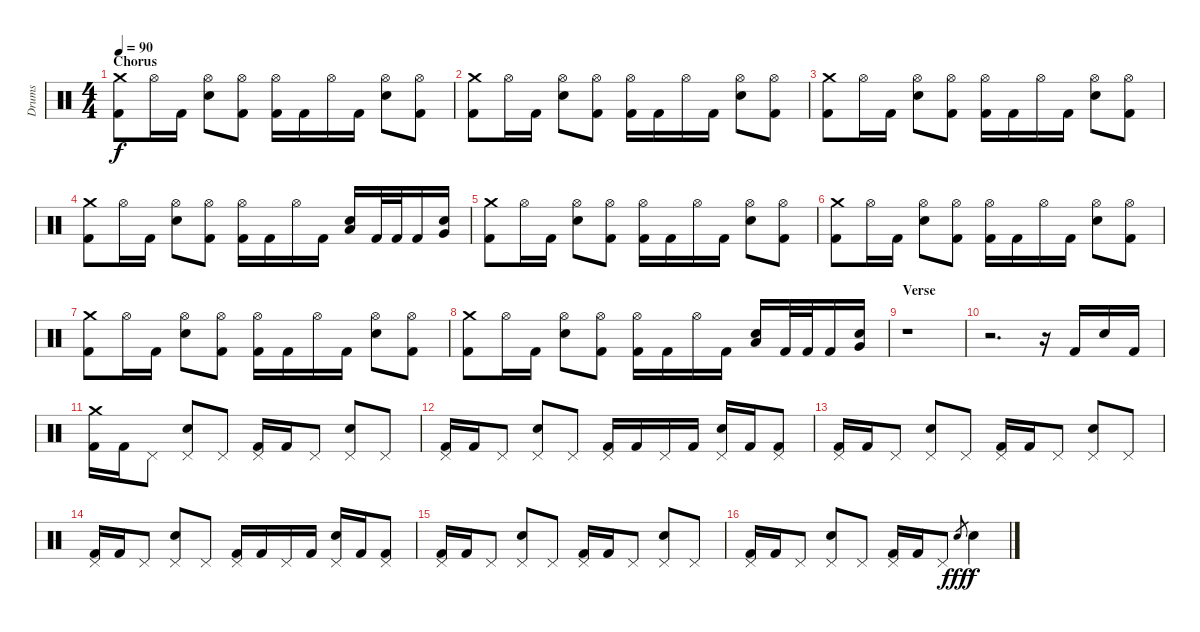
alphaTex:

\track ("Drums" "Drums") {instrument percussion}
\staff {score}
\articulation defaults
\ts (4 4)
\section ("" "Chorus")
\tempo 90
\clef neutral
\ks c
("Crash medium (hit)" "Kick (hit) 2").8{dy f} "Hi-Hat (open)".16 "Kick (hit) 2".16 ("Hi-Hat (open)" "Electric Snare (hit)").8 ("Hi-Hat (open)" "Kick (hit) 2").8 ("Hi-Hat (open)" "Kick (hit) 2").16 "Kick (hit) 2".16 "Hi-Hat (open)".16 "Kick (hit) 2".16 ("Hi-Hat (open)" "Electric Snare (hit)").8 ("Hi-Hat (open)" "Kick (hit) 2").8 |
("Crash medium (hit)" "Kick (hit) 2").8 "Hi-Hat (open)".16 "Kick (hit) 2".16 ("Hi-Hat (open)" "Electric Snare (hit)").8 ("Hi-Hat (open)" "Kick (hit) 2").8 ("Hi-Hat (open)" "Kick (hit) 2").16 "Kick (hit) 2".16 "Hi-Hat (open)".16 "Kick (hit) 2".16 ("Hi-Hat (open)" "Electric Snare (hit)").8 ("Hi-Hat (open)" "Kick (hit) 2").8 |
("Crash medium (hit)" "Kick (hit) 2").8 "Hi-Hat (open)".16 "Kick (hit) 2".16 ("Hi-Hat (open)" "Electric Snare (hit)").8 ("Hi-Hat (open)" "Kick (hit) 2").8 ("Hi-Hat (open)" "Kick (hit) 2").16 "Kick (hit) 2".16 "Hi-Hat (open)".16 "Kick (hit) 2".16 ("Hi-Hat (open)" "Electric Snare (hit)").8 ("Hi-Hat (open)" "Kick (hit) 2").8 |
("Crash medium (hit)" "Kick (hit) 2").8 "Hi-Hat (open)".16 "Kick (hit) 2".16 ("Hi-Hat (open)" "Electric Snare (hit)").8 ("Hi-Hat (open)" "Kick (hit) 2").8 ("Hi-Hat (open)" "Kick (hit) 2").16 "Kick (hit) 2".16 "Hi-Hat (open)".16 "Kick (hit) 2".16 ("Electric Snare (hit)" "Low Tom (hit)").16 "Kick (hit) 2".32 "Kick (hit) 2".32 "Kick (hit) 2".16 ("Electric Snare (hit)" "Very Low Tom (hit)").16 |
("Crash medium (hit)" "Kick (hit) 2").8 "Hi-Hat (open)".16 "Kick (hit) 2".16 ("Hi-Hat (open)" "Electric Snare (hit)").8 ("Hi-Hat (open)" "Kick (hit) 2").8 ("Hi-Hat (open)" "Kick (hit) 2").16 "Kick (hit) 2".16 "Hi-Hat (open)".16 "Kick (hit) 2".16 ("Hi-Hat (open)" "Electric Snare (hit)").8 ("Hi-Hat (open)" "Kick (hit) 2").8 |
("Crash medium (hit)" "Kick (hit) 2").8 "Hi-Hat (open)".16 "Kick (hit) 2".16 ("Hi-Hat (open)" "Electric Snare (hit)").8 ("Hi-Hat (open)" "Kick (hit) 2").8 ("Hi-Hat (open)" "Kick (hit) 2").16 "Kick (hit) 2".16 "Hi-Hat (open)".16 "Kick (hit) 2".16 ("Hi-Hat (open)" "Electric Snare (hit)").8 ("Hi-Hat (open)" "Kick (hit) 2").8 |
("Crash medium (hit)" "Kick (hit) 2").8 "Hi-Hat (open)".16 "Kick (hit) 2".16 ("Hi-Hat (open)" "Electric Snare (hit)").8 ("Hi-Hat (open)" "Kick (hit) 2").8 ("Hi-Hat (open)" "Kick (hit) 2").16 "Kick (hit) 2".16 "Hi-Hat (open)".16 "Kick (hit) 2".16 ("Hi-Hat (open)" "Electric Snare (hit)").8 ("Hi-Hat (open)" "Kick (hit) 2").8 |
("Crash medium (hit)" "Kick (hit) 2").8 "Hi-Hat (open)".16 "Kick (hit) 2".16 ("Hi-Hat (open)" "Electric Snare (hit)").8 ("Hi-Hat (open)" "Kick (hit) 2").8 ("Hi-Hat (open)" "Kick (hit) 2").16 "Kick (hit) 2".16 "Hi-Hat (open)".16 "Kick (hit) 2".16 ("Electric Snare (hit)" "Low Tom (hit)").16 "Kick (hit) 2".32 "Kick (hit) 2".32 "Kick (hit) 2".16 ("Electric Snare (hit)" "Very Low Tom (hit)").16 |
\section ("" "Verse")
r.1 |
r.2{d} r.16 "Kick (hit) 2".16 "Electric Snare (hit)".16 "Kick (hit) 2".16 |
("Crash medium (hit)" "Kick (hit) 2").16 "Kick (hit) 2".16 "Pedal Hi-Hat (hit)".8 ("Pedal Hi-Hat (hit)" "Electric Snare (hit)").8 "Pedal Hi-Hat (hit)".8 ("Pedal Hi-Hat (hit)" "Kick (hit) 2").16 "Kick (hit) 2".16 "Pedal Hi-Hat (hit)".8 ("Pedal Hi-Hat (hit)" "Electric Snare (hit)").8 "Pedal Hi-Hat (hit)".8 |
("Pedal Hi-Hat (hit)" "Kick (hit) 2").16 "Kick (hit) 2".16 "Pedal Hi-Hat (hit)".8 ("Pedal Hi-Hat (hit)" "Electric Snare (hit)").8 "Pedal Hi-Hat (hit)".8 ("Pedal Hi-Hat (hit)" "Kick (hit) 2").16 "Kick (hit) 2".16 "Pedal Hi-Hat (hit)".16 "Kick (hit) 2".16 ("Pedal Hi-Hat (hit)" "Electric Snare (hit)").16 "Kick (hit) 2".16 ("Pedal Hi-Hat (hit)" "Kick (hit) 2").8 |
("Pedal Hi-Hat (hit)" "Kick (hit) 2").16 "Kick (hit) 2".16 "Pedal Hi-Hat (hit)".8 ("Pedal Hi-Hat (hit)" "Electric Snare (hit)").8 "Pedal Hi-Hat (hit)".8 ("Pedal Hi-Hat (hit)" "Kick (hit) 2").16 "Kick (hit) 2".16 "Pedal Hi-Hat (hit)".8 ("Pedal Hi-Hat (hit)" "Electric Snare (hit)").8 "Pedal Hi-Hat (hit)".8 |
("Pedal Hi-Hat (hit)" "Kick (hit) 2").16 "Kick (hit) 2".16 "Pedal Hi-Hat (hit)".8 ("Pedal Hi-Hat (hit)" "Electric Snare (hit)").8 "Pedal Hi-Hat (hit)".8 ("Pedal Hi-Hat (hit)" "Kick (hit) 2").16 "Kick (hit) 2".16 "Pedal Hi-Hat (hit)".16 "Kick (hit) 2".16 ("Pedal Hi-Hat (hit)" "Electric Snare (hit)").16 "Kick (hit) 2".16 ("Pedal Hi-Hat (hit)" "Kick (hit) 2").8 |
("Pedal Hi-Hat (hit)" "Kick (hit) 2").16 "Kick (hit) 2".16 "Pedal Hi-Hat (hit)".8 ("Pedal Hi-Hat (hit)" "Electric Snare (hit)").8 "Pedal Hi-Hat (hit)".8 ("Pedal Hi-Hat (hit)" "Kick (hit) 2").16 "Kick (hit) 2".16 "Pedal Hi-Hat (hit)".8 ("Pedal Hi-Hat (hit)" "Electric Snare (hit)").8 "Pedal Hi-Hat (hit)".8 |
("Pedal Hi-Hat (hit)" "Kick (hit) 2").16 "Kick (hit) 2".16 "Pedal Hi-Hat (hit)".8 ("Pedal Hi-Hat (hit)" "Electric Snare (hit)").8 "Pedal Hi-Hat (hit)".8 ("Pedal Hi-Hat (hit)" "Kick (hit) 2").16 "Kick (hit) 2".16 "Pedal Hi-Hat (hit)".8 "Electric Snare (hit)".8{gr dy fff} "Electric Snare (hit)".4{dy f}
